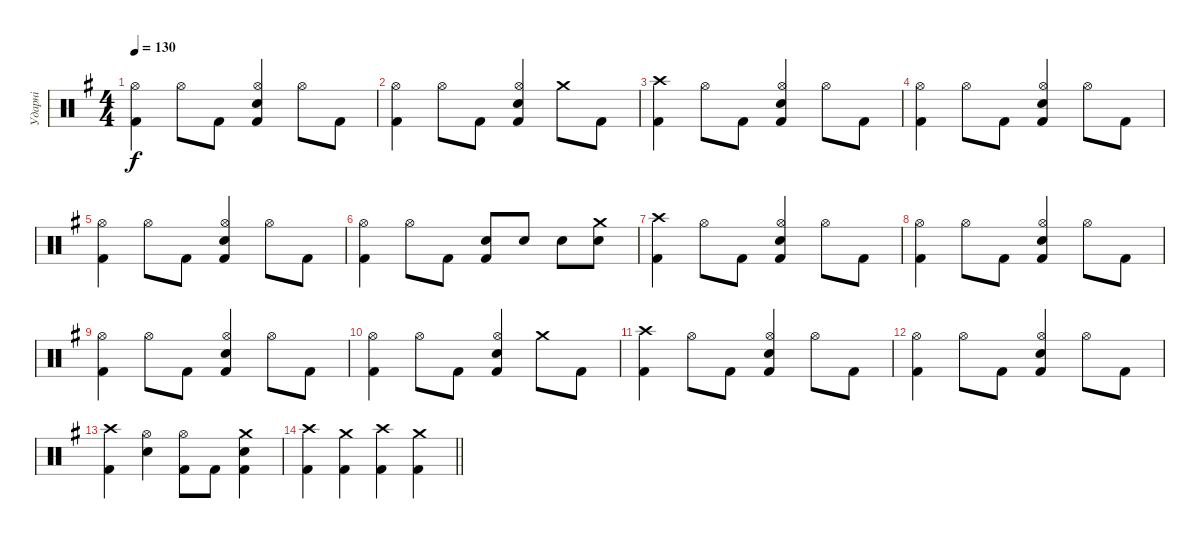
\track ("Ударні" "Ударні") {instrument percussion}
\staff {score}
\articulation defaults
\ts (4 4)
\tempo 130
\clef neutral
\ks eminor
("Kick (hit) 2" "Hi-Hat (open)").4{dy f} "Hi-Hat (open)".8 "Kick (hit) 2".8 ("Kick (hit) 2" "Snare (hit) 2" "Hi-Hat (open)").4 "Hi-Hat (open)".8 "Kick (hit) 2".8 |
("Kick (hit) 2" "Hi-Hat (open)").4 "Hi-Hat (open)".8 "Kick (hit) 2".8 ("Kick (hit) 2" "Snare (hit) 2" "Hi-Hat (open)").4 "Crash medium (hit)".8 "Kick (hit) 2".8 |
("Kick (hit) 2" "Crash high (hit)").4 "Hi-Hat (open)".8 "Kick (hit) 2".8 ("Kick (hit) 2" "Snare (hit) 2" "Hi-Hat (open)").4 "Hi-Hat (open)".8 "Kick (hit) 2".8 |
("Kick (hit) 2" "Hi-Hat (open)").4 "Hi-Hat (open)".8 "Kick (hit) 2".8 ("Kick (hit) 2" "Snare (hit) 2" "Hi-Hat (open)").4 "Hi-Hat (open)".8 "Kick (hit) 2".8 |
("Kick (hit) 2" "Hi-Hat (open)").4 "Hi-Hat (open)".8 "Kick (hit) 2".8 ("Kick (hit) 2" "Snare (hit) 2" "Hi-Hat (open)").4 "Hi-Hat (open)".8 "Kick (hit) 2".8 |
("Kick (hit) 2" "Hi-Hat (open)").4 "Hi-Hat (open)".8 "Kick (hit) 2".8 ("Kick (hit) 2" "Snare (hit) 2").8 "Snare (hit) 2".8 "Snare (hit) 2".8 ("Snare (hit) 2" "Crash medium (hit)").8 |
("Kick (hit) 2" "Crash high (hit)").4 "Hi-Hat (open)".8 "Kick (hit) 2".8 ("Kick (hit) 2" "Snare (hit) 2" "Hi-Hat (open)").4 "Hi-Hat (open)".8 "Kick (hit) 2".8 |
("Kick (hit) 2" "Hi-Hat (open)").4 "Hi-Hat (open)".8 "Kick (hit) 2".8 ("Kick (hit) 2" "Snare (hit) 2" "Hi-Hat (open)").4 "Hi-Hat (open)".8 "Kick (hit) 2".8 |
("Kick (hit) 2" "Hi-Hat (open)").4 "Hi-Hat (open)".8 "Kick (hit) 2".8 ("Kick (hit) 2" "Snare (hit) 2" "Hi-Hat (open)").4 "Hi-Hat (open)".8 "Kick (hit) 2".8 |
("Kick (hit) 2" "Hi-Hat (open)").4 "Hi-Hat (open)".8 "Kick (hit) 2".8 ("Kick (hit) 2" "Snare (hit) 2" "Hi-Hat (open)").4 "Crash medium (hit)".8 "Kick (hit) 2".8 |
("Kick (hit) 2" "Crash high (hit)").4 "Hi-Hat (open)".8 "Kick (hit) 2".8 ("Kick (hit) 2" "Snare (hit) 2" "Hi-Hat (open)").4 "Hi-Hat (open)".8 "Kick (hit) 2".8 |
("Kick (hit) 2" "Hi-Hat (open)").4 "Hi-Hat (open)".8 "Kick (hit) 2".8 ("Kick (hit) 2" "Snare (hit) 2" "Hi-Hat (open)").4 "Hi-Hat (open)".8 "Kick (hit) 2".8 |
("Kick (hit) 2" "Crash high (hit)").4 ("Snare (hit) 2" "Hi-Hat (open)").4 ("Kick (hit) 2" "Hi-Hat (open)").8 "Kick (hit) 2".8 ("Kick (hit) 2" "Snare (hit) 2" "Crash medium (hit)").4 |
\barLineRight lightlight
("Kick (hit) 2" "Crash high (hit)").4 ("Kick (hit) 2" "Crash medium (hit)").4 ("Kick (hit) 2" "Crash high (hit)").4 ("Kick (hit) 2" "Crash medium (hit)").4
